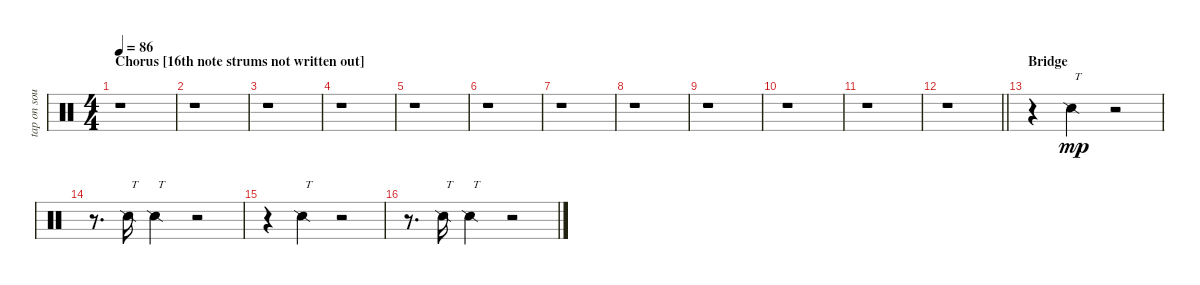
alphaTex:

\track ("tap on soundboard" "tap on sou") {instrument percussion}
\staff {score}
\articulation defaults
\ts (4 4)
\section ("" "Chorus [16th note strums not written out]")
\tempo 86
\clef neutral
\ks c
r.1{dy fff} |
r.1 |
r.1 |
r.1 |
r.1 |
r.1 |
r.1 |
r.1 |
r.1 |
r.1 |
r.1 |
\barLineRight lightlight
r.1 |
\section ("" "Bridge")
r.4 "Snare (side stick) 2".4{txt "T" dy mp} r.2 |
r.8{d} "Snare (side stick) 2".16{txt "T"} "Snare (side stick) 2".4{txt "T"} r.2 |
r.4 "Snare (side stick) 2".4{txt "T"} r.2 |
r.8{d} "Snare (side stick) 2".16{txt "T"} "Snare (side stick) 2".4{txt "T"} r.2
